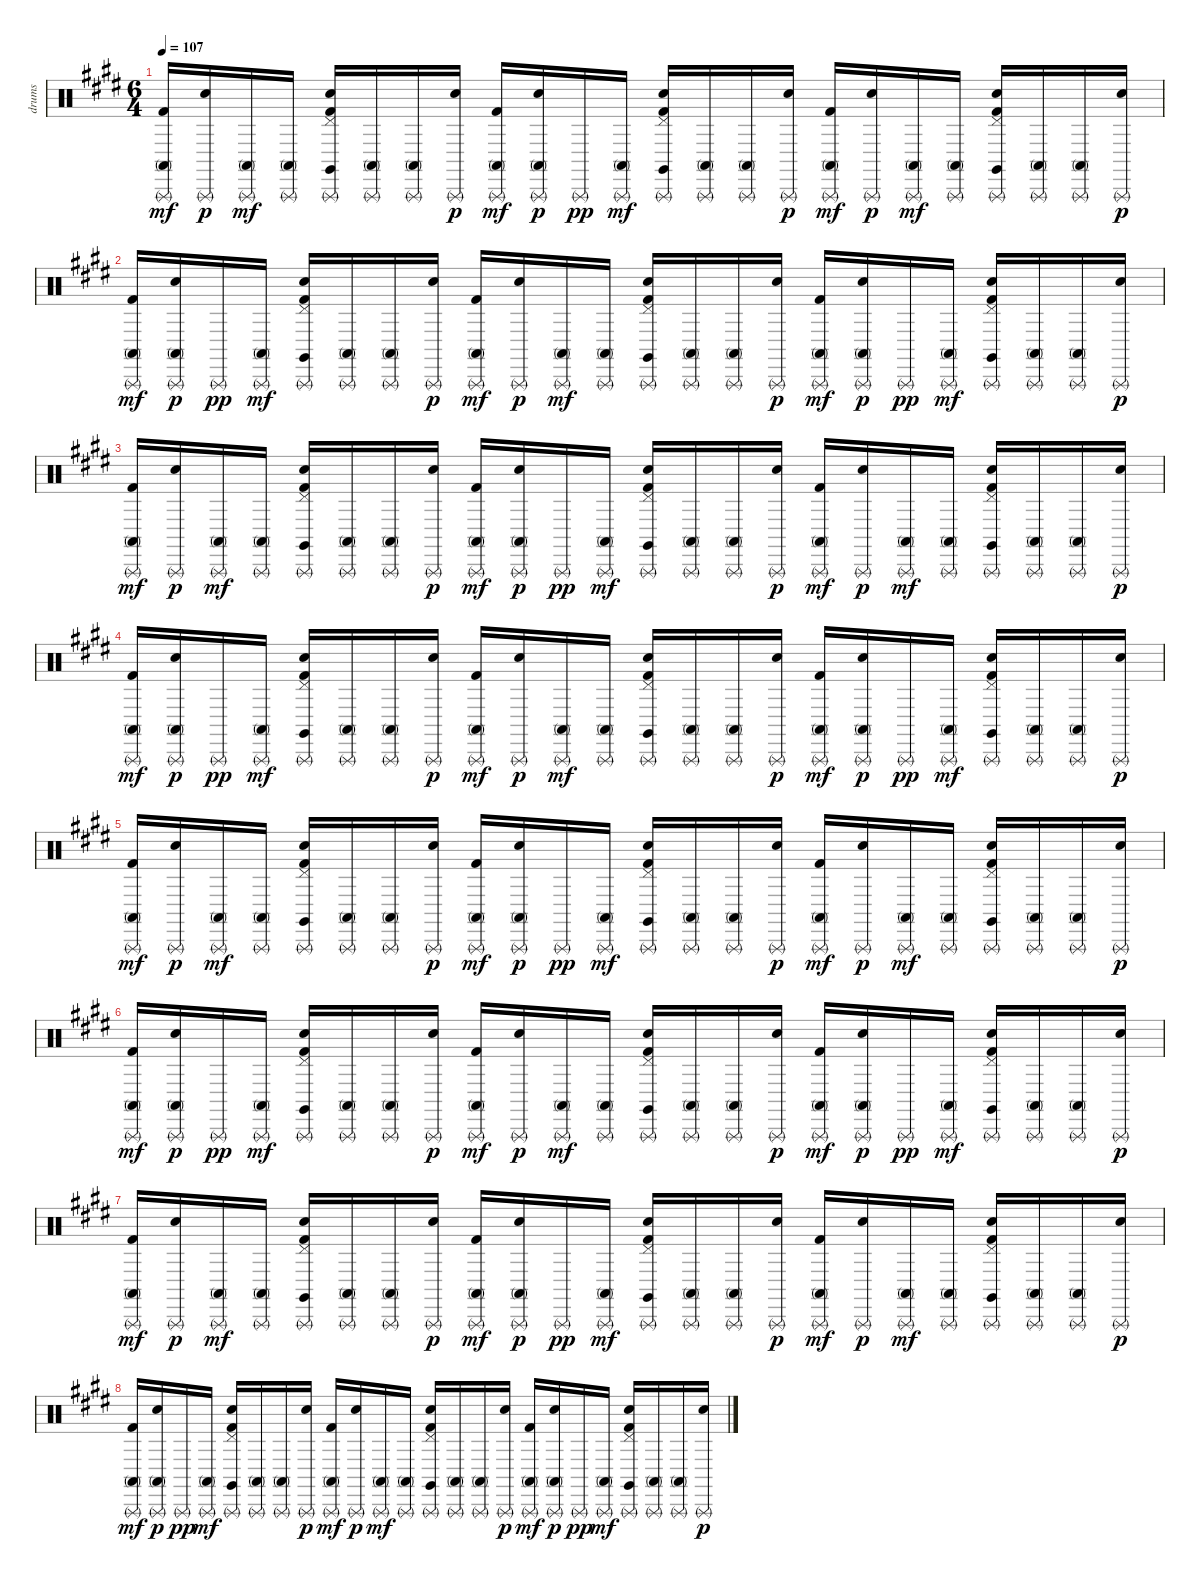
\track ("drums" "drums") {instrument percussion}
\staff {score}
\articulation defaults
\ts (6 4)
\tempo 107
\clef neutral
\ks e
("Triangle (rnute)" "Conga high (mute)" "Kick (hit) 2").16{dy mf} ("Triangle (rnute)" "Electric Snare (hit)").16{dy p} ("Triangle (rnute)" "Conga high (mute)").16{dy mf} ("Triangle (rnute)" "Conga high (mute)").16 ("Triangle (rnute)" "Claves (hit)" "Pedal Hi-Hat (hit)" "Electric Snare (hit)" "Kick (hit) 2").16 ("Triangle (rnute)" "Conga high (mute)").16 ("Triangle (rnute)" "Conga high (mute)").16 ("Triangle (rnute)" "Electric Snare (hit)").16{dy p} ("Triangle (rnute)" "Conga high (mute)" "Kick (hit) 2").16{dy mf} ("Triangle (rnute)" "Conga high (mute)" "Electric Snare (hit)").16{dy p} "Triangle (rnute)".16{dy pp} ("Triangle (rnute)" "Conga high (mute)").16{dy mf} ("Triangle (rnute)" "Claves (hit)" "Pedal Hi-Hat (hit)" "Electric Snare (hit)" "Kick (hit) 2").16 ("Triangle (rnute)" "Conga high (mute)").16 ("Triangle (rnute)" "Conga high (mute)").16 ("Triangle (rnute)" "Electric Snare (hit)").16{dy p} ("Triangle (rnute)" "Conga high (mute)" "Kick (hit) 2").16{dy mf} ("Triangle (rnute)" "Electric Snare (hit)").16{dy p} ("Triangle (rnute)" "Conga high (mute)").16{dy mf} ("Triangle (rnute)" "Conga high (mute)").16 ("Triangle (rnute)" "Claves (hit)" "Pedal Hi-Hat (hit)" "Electric Snare (hit)" "Kick (hit) 2").16 ("Triangle (rnute)" "Conga high (mute)").16 ("Triangle (rnute)" "Conga high (mute)").16 ("Triangle (rnute)" "Electric Snare (hit)").16{dy p} |
("Triangle (rnute)" "Conga high (mute)" "Kick (hit) 2").16{dy mf} ("Triangle (rnute)" "Conga high (mute)" "Electric Snare (hit)").16{dy p} "Triangle (rnute)".16{dy pp} ("Triangle (rnute)" "Conga high (mute)").16{dy mf} ("Triangle (rnute)" "Claves (hit)" "Pedal Hi-Hat (hit)" "Electric Snare (hit)" "Kick (hit) 2").16 ("Triangle (rnute)" "Conga high (mute)").16 ("Triangle (rnute)" "Conga high (mute)").16 ("Triangle (rnute)" "Electric Snare (hit)").16{dy p} ("Triangle (rnute)" "Conga high (mute)" "Kick (hit) 2").16{dy mf} ("Triangle (rnute)" "Electric Snare (hit)").16{dy p} ("Triangle (rnute)" "Conga high (mute)").16{dy mf} ("Triangle (rnute)" "Conga high (mute)").16 ("Triangle (rnute)" "Claves (hit)" "Pedal Hi-Hat (hit)" "Electric Snare (hit)" "Kick (hit) 2").16 ("Triangle (rnute)" "Conga high (mute)").16 ("Triangle (rnute)" "Conga high (mute)").16 ("Triangle (rnute)" "Electric Snare (hit)").16{dy p} ("Triangle (rnute)" "Conga high (mute)" "Kick (hit) 2").16{dy mf} ("Triangle (rnute)" "Conga high (mute)" "Electric Snare (hit)").16{dy p} "Triangle (rnute)".16{dy pp} ("Triangle (rnute)" "Conga high (mute)").16{dy mf} ("Triangle (rnute)" "Claves (hit)" "Pedal Hi-Hat (hit)" "Electric Snare (hit)" "Kick (hit) 2").16 ("Triangle (rnute)" "Conga high (mute)").16 ("Triangle (rnute)" "Conga high (mute)").16 ("Triangle (rnute)" "Electric Snare (hit)").16{dy p} |
("Triangle (rnute)" "Conga high (mute)" "Kick (hit) 2").16{dy mf} ("Triangle (rnute)" "Electric Snare (hit)").16{dy p} ("Triangle (rnute)" "Conga high (mute)").16{dy mf} ("Triangle (rnute)" "Conga high (mute)").16 ("Triangle (rnute)" "Claves (hit)" "Pedal Hi-Hat (hit)" "Electric Snare (hit)" "Kick (hit) 2").16 ("Triangle (rnute)" "Conga high (mute)").16 ("Triangle (rnute)" "Conga high (mute)").16 ("Triangle (rnute)" "Electric Snare (hit)").16{dy p} ("Triangle (rnute)" "Conga high (mute)" "Kick (hit) 2").16{dy mf} ("Triangle (rnute)" "Conga high (mute)" "Electric Snare (hit)").16{dy p} "Triangle (rnute)".16{dy pp} ("Triangle (rnute)" "Conga high (mute)").16{dy mf} ("Triangle (rnute)" "Claves (hit)" "Pedal Hi-Hat (hit)" "Electric Snare (hit)" "Kick (hit) 2").16 ("Triangle (rnute)" "Conga high (mute)").16 ("Triangle (rnute)" "Conga high (mute)").16 ("Triangle (rnute)" "Electric Snare (hit)").16{dy p} ("Triangle (rnute)" "Conga high (mute)" "Kick (hit) 2").16{dy mf} ("Triangle (rnute)" "Electric Snare (hit)").16{dy p} ("Triangle (rnute)" "Conga high (mute)").16{dy mf} ("Triangle (rnute)" "Conga high (mute)").16 ("Triangle (rnute)" "Claves (hit)" "Pedal Hi-Hat (hit)" "Electric Snare (hit)" "Kick (hit) 2").16 ("Triangle (rnute)" "Conga high (mute)").16 ("Triangle (rnute)" "Conga high (mute)").16 ("Triangle (rnute)" "Electric Snare (hit)").16{dy p} |
("Triangle (rnute)" "Conga high (mute)" "Kick (hit) 2").16{dy mf} ("Triangle (rnute)" "Conga high (mute)" "Electric Snare (hit)").16{dy p} "Triangle (rnute)".16{dy pp} ("Triangle (rnute)" "Conga high (mute)").16{dy mf} ("Triangle (rnute)" "Claves (hit)" "Pedal Hi-Hat (hit)" "Electric Snare (hit)" "Kick (hit) 2").16 ("Triangle (rnute)" "Conga high (mute)").16 ("Triangle (rnute)" "Conga high (mute)").16 ("Triangle (rnute)" "Electric Snare (hit)").16{dy p} ("Triangle (rnute)" "Conga high (mute)" "Kick (hit) 2").16{dy mf} ("Triangle (rnute)" "Electric Snare (hit)").16{dy p} ("Triangle (rnute)" "Conga high (mute)").16{dy mf} ("Triangle (rnute)" "Conga high (mute)").16 ("Triangle (rnute)" "Claves (hit)" "Pedal Hi-Hat (hit)" "Electric Snare (hit)" "Kick (hit) 2").16 ("Triangle (rnute)" "Conga high (mute)").16 ("Triangle (rnute)" "Conga high (mute)").16 ("Triangle (rnute)" "Electric Snare (hit)").16{dy p} ("Triangle (rnute)" "Conga high (mute)" "Kick (hit) 2").16{dy mf} ("Triangle (rnute)" "Conga high (mute)" "Electric Snare (hit)").16{dy p} "Triangle (rnute)".16{dy pp} ("Triangle (rnute)" "Conga high (mute)").16{dy mf} ("Triangle (rnute)" "Claves (hit)" "Pedal Hi-Hat (hit)" "Electric Snare (hit)" "Kick (hit) 2").16 ("Triangle (rnute)" "Conga high (mute)").16 ("Triangle (rnute)" "Conga high (mute)").16 ("Triangle (rnute)" "Electric Snare (hit)").16{dy p} |
("Triangle (rnute)" "Conga high (mute)" "Kick (hit) 2").16{dy mf} ("Triangle (rnute)" "Electric Snare (hit)").16{dy p} ("Triangle (rnute)" "Conga high (mute)").16{dy mf} ("Triangle (rnute)" "Conga high (mute)").16 ("Triangle (rnute)" "Claves (hit)" "Pedal Hi-Hat (hit)" "Electric Snare (hit)" "Kick (hit) 2").16 ("Triangle (rnute)" "Conga high (mute)").16 ("Triangle (rnute)" "Conga high (mute)").16 ("Triangle (rnute)" "Electric Snare (hit)").16{dy p} ("Triangle (rnute)" "Conga high (mute)" "Kick (hit) 2").16{dy mf} ("Triangle (rnute)" "Conga high (mute)" "Electric Snare (hit)").16{dy p} "Triangle (rnute)".16{dy pp} ("Triangle (rnute)" "Conga high (mute)").16{dy mf} ("Triangle (rnute)" "Claves (hit)" "Pedal Hi-Hat (hit)" "Electric Snare (hit)" "Kick (hit) 2").16 ("Triangle (rnute)" "Conga high (mute)").16 ("Triangle (rnute)" "Conga high (mute)").16 ("Triangle (rnute)" "Electric Snare (hit)").16{dy p} ("Triangle (rnute)" "Conga high (mute)" "Kick (hit) 2").16{dy mf} ("Triangle (rnute)" "Electric Snare (hit)").16{dy p} ("Triangle (rnute)" "Conga high (mute)").16{dy mf} ("Triangle (rnute)" "Conga high (mute)").16 ("Triangle (rnute)" "Claves (hit)" "Pedal Hi-Hat (hit)" "Electric Snare (hit)" "Kick (hit) 2").16 ("Triangle (rnute)" "Conga high (mute)").16 ("Triangle (rnute)" "Conga high (mute)").16 ("Triangle (rnute)" "Electric Snare (hit)").16{dy p} |
("Triangle (rnute)" "Conga high (mute)" "Kick (hit) 2").16{dy mf} ("Triangle (rnute)" "Conga high (mute)" "Electric Snare (hit)").16{dy p} "Triangle (rnute)".16{dy pp} ("Triangle (rnute)" "Conga high (mute)").16{dy mf} ("Triangle (rnute)" "Claves (hit)" "Pedal Hi-Hat (hit)" "Electric Snare (hit)" "Kick (hit) 2").16 ("Triangle (rnute)" "Conga high (mute)").16 ("Triangle (rnute)" "Conga high (mute)").16 ("Triangle (rnute)" "Electric Snare (hit)").16{dy p} ("Triangle (rnute)" "Conga high (mute)" "Kick (hit) 2").16{dy mf} ("Triangle (rnute)" "Electric Snare (hit)").16{dy p} ("Triangle (rnute)" "Conga high (mute)").16{dy mf} ("Triangle (rnute)" "Conga high (mute)").16 ("Triangle (rnute)" "Claves (hit)" "Pedal Hi-Hat (hit)" "Electric Snare (hit)" "Kick (hit) 2").16 ("Triangle (rnute)" "Conga high (mute)").16 ("Triangle (rnute)" "Conga high (mute)").16 ("Triangle (rnute)" "Electric Snare (hit)").16{dy p} ("Triangle (rnute)" "Conga high (mute)" "Kick (hit) 2").16{dy mf} ("Triangle (rnute)" "Conga high (mute)" "Electric Snare (hit)").16{dy p} "Triangle (rnute)".16{dy pp} ("Triangle (rnute)" "Conga high (mute)").16{dy mf} ("Triangle (rnute)" "Claves (hit)" "Pedal Hi-Hat (hit)" "Electric Snare (hit)" "Kick (hit) 2").16 ("Triangle (rnute)" "Conga high (mute)").16 ("Triangle (rnute)" "Conga high (mute)").16 ("Triangle (rnute)" "Electric Snare (hit)").16{dy p} |
("Triangle (rnute)" "Conga high (mute)" "Kick (hit) 2").16{dy mf} ("Triangle (rnute)" "Electric Snare (hit)").16{dy p} ("Triangle (rnute)" "Conga high (mute)").16{dy mf} ("Triangle (rnute)" "Conga high (mute)").16 ("Triangle (rnute)" "Claves (hit)" "Pedal Hi-Hat (hit)" "Electric Snare (hit)" "Kick (hit) 2").16 ("Triangle (rnute)" "Conga high (mute)").16 ("Triangle (rnute)" "Conga high (mute)").16 ("Triangle (rnute)" "Electric Snare (hit)").16{dy p} ("Triangle (rnute)" "Conga high (mute)" "Kick (hit) 2").16{dy mf} ("Triangle (rnute)" "Conga high (mute)" "Electric Snare (hit)").16{dy p} "Triangle (rnute)".16{dy pp} ("Triangle (rnute)" "Conga high (mute)").16{dy mf} ("Triangle (rnute)" "Claves (hit)" "Pedal Hi-Hat (hit)" "Electric Snare (hit)" "Kick (hit) 2").16 ("Triangle (rnute)" "Conga high (mute)").16 ("Triangle (rnute)" "Conga high (mute)").16 ("Triangle (rnute)" "Electric Snare (hit)").16{dy p} ("Triangle (rnute)" "Conga high (mute)" "Kick (hit) 2").16{dy mf} ("Triangle (rnute)" "Electric Snare (hit)").16{dy p} ("Triangle (rnute)" "Conga high (mute)").16{dy mf} ("Triangle (rnute)" "Conga high (mute)").16 ("Triangle (rnute)" "Claves (hit)" "Pedal Hi-Hat (hit)" "Electric Snare (hit)" "Kick (hit) 2").16 ("Triangle (rnute)" "Conga high (mute)").16 ("Triangle (rnute)" "Conga high (mute)").16 ("Triangle (rnute)" "Electric Snare (hit)").16{dy p} |
("Triangle (rnute)" "Conga high (mute)" "Kick (hit) 2").16{dy mf} ("Triangle (rnute)" "Conga high (mute)" "Electric Snare (hit)").16{dy p} "Triangle (rnute)".16{dy pp} ("Triangle (rnute)" "Conga high (mute)").16{dy mf} ("Triangle (rnute)" "Claves (hit)" "Pedal Hi-Hat (hit)" "Electric Snare (hit)" "Kick (hit) 2").16 ("Triangle (rnute)" "Conga high (mute)").16 ("Triangle (rnute)" "Conga high (mute)").16 ("Triangle (rnute)" "Electric Snare (hit)").16{dy p} ("Triangle (rnute)" "Conga high (mute)" "Kick (hit) 2").16{dy mf} ("Triangle (rnute)" "Electric Snare (hit)").16{dy p} ("Triangle (rnute)" "Conga high (mute)").16{dy mf} ("Triangle (rnute)" "Conga high (mute)").16 ("Triangle (rnute)" "Claves (hit)" "Pedal Hi-Hat (hit)" "Electric Snare (hit)" "Kick (hit) 2").16 ("Triangle (rnute)" "Conga high (mute)").16 ("Triangle (rnute)" "Conga high (mute)").16 ("Triangle (rnute)" "Electric Snare (hit)").16{dy p} ("Triangle (rnute)" "Conga high (mute)" "Kick (hit) 2").16{dy mf} ("Triangle (rnute)" "Conga high (mute)" "Electric Snare (hit)").16{dy p} "Triangle (rnute)".16{dy pp} ("Triangle (rnute)" "Conga high (mute)").16{dy mf} ("Triangle (rnute)" "Claves (hit)" "Pedal Hi-Hat (hit)" "Electric Snare (hit)" "Kick (hit) 2").16 ("Triangle (rnute)" "Conga high (mute)").16 ("Triangle (rnute)" "Conga high (mute)").16 ("Triangle (rnute)" "Electric Snare (hit)").16{dy p}
